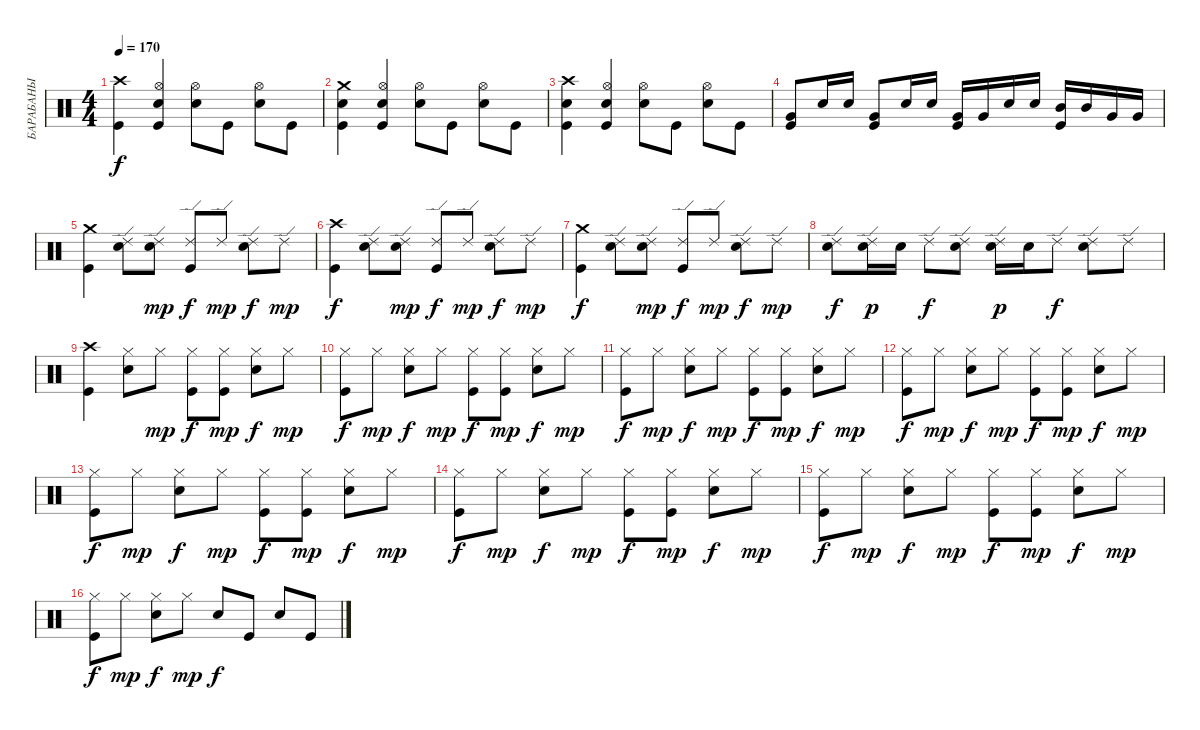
\track ("БАРАБАНЫ" "БАРАБАНЫ") {instrument percussion}
\staff {score}
\articulation defaults
\ts (4 4)
\tempo 170
\clef neutral
\ks c
("Crash high (hit)" "Kick (hit)").4{dy f} ("Hi-Hat (open)" "Electric Snare (hit)" "Kick (hit)").4 ("Hi-Hat (open)" "Electric Snare (hit)").8 "Kick (hit)".8 ("Hi-Hat (open)" "Electric Snare (hit)").8 "Kick (hit)".8 |
("Crash medium (hit)" "Electric Snare (hit)" "Kick (hit)").4 ("Hi-Hat (open)" "Electric Snare (hit)" "Kick (hit)").4 ("Hi-Hat (open)" "Electric Snare (hit)").8 "Kick (hit)".8 ("Hi-Hat (open)" "Electric Snare (hit)").8 "Kick (hit)".8 |
("Crash high (hit)" "Electric Snare (hit)" "Kick (hit)").4 ("Hi-Hat (open)" "Electric Snare (hit)" "Kick (hit)").4 ("Hi-Hat (open)" "Electric Snare (hit)").8 "Kick (hit)".8 ("Hi-Hat (open)" "Electric Snare (hit)").8 "Kick (hit)".8 |
("Very Low Tom (hit)" "Kick (hit)").8 "Electric Snare (hit)".16 "Electric Snare (hit)".16 ("Very Low Tom (hit)" "Kick (hit)").8 "Electric Snare (hit)".16 "Electric Snare (hit)".16 ("Very Low Tom (hit)" "Kick (hit)").16 "Very Low Tom (hit)".16 "Electric Snare (hit)".16 "Electric Snare (hit)".16 ("Mid Tom (hit)" "Kick (hit)").16 "Mid Tom (hit)".16 "Very Low Tom (hit)".16 "Very Low Tom (hit)".16 |
("Crash medium (hit)" "Kick (hit)").4 ("Ride (edge) 2" "Electric Snare (hit)").8 ("Ride (edge) 2" "Electric Snare (hit)").8{dy mp} ("Ride (edge) 2" "Kick (hit)").8{dy f} "Ride (edge) 2".8{dy mp} ("Ride (edge) 2" "Electric Snare (hit)").8{dy f} "Ride (edge) 2".8{dy mp} |
("Crash high (hit)" "Kick (hit)").4{dy f} ("Ride (edge) 2" "Electric Snare (hit)").8 ("Ride (edge) 2" "Electric Snare (hit)").8{dy mp} ("Ride (edge) 2" "Kick (hit)").8{dy f} "Ride (edge) 2".8{dy mp} ("Ride (edge) 2" "Electric Snare (hit)").8{dy f} "Ride (edge) 2".8{dy mp} |
("Crash medium (hit)" "Kick (hit)").4{dy f} ("Ride (edge) 2" "Electric Snare (hit)").8 ("Ride (edge) 2" "Electric Snare (hit)").8{dy mp} ("Ride (edge) 2" "Kick (hit)").8{dy f} "Ride (edge) 2".8{dy mp} ("Ride (edge) 2" "Electric Snare (hit)").8{dy f} "Ride (edge) 2".8{dy mp} |
("Ride (edge) 2" "Electric Snare (hit)").8{dy f} ("Ride (edge) 2" "Electric Snare (hit)").16{dy p} "Electric Snare (hit)".16 "Ride (edge) 2".8{dy f} ("Ride (edge) 2" "Electric Snare (hit)").8 ("Ride (edge) 2" "Electric Snare (hit)").16{dy p} "Electric Snare (hit)".16 "Ride (edge) 2".8{dy f} ("Ride (edge) 2" "Electric Snare (hit)").8 "Ride (edge) 2".8 |
("Crash high (hit)" "Kick (hit)").4 ("Hi-Hat (closed)" "Electric Snare (hit)").8 "Hi-Hat (closed)".8{dy mp} ("Hi-Hat (closed)" "Kick (hit)").8{dy f} ("Hi-Hat (closed)" "Kick (hit)").8{dy mp} ("Hi-Hat (closed)" "Electric Snare (hit)").8{dy f} "Hi-Hat (closed)".8{dy mp} |
("Hi-Hat (closed)" "Kick (hit)").8{dy f} "Hi-Hat (closed)".8{dy mp} ("Hi-Hat (closed)" "Electric Snare (hit)").8{dy f} "Hi-Hat (closed)".8{dy mp} ("Hi-Hat (closed)" "Kick (hit)").8{dy f} ("Hi-Hat (closed)" "Kick (hit)").8{dy mp} ("Hi-Hat (closed)" "Electric Snare (hit)").8{dy f} "Hi-Hat (closed)".8{dy mp} |
("Hi-Hat (closed)" "Kick (hit)").8{dy f} "Hi-Hat (closed)".8{dy mp} ("Hi-Hat (closed)" "Electric Snare (hit)").8{dy f} "Hi-Hat (closed)".8{dy mp} ("Hi-Hat (closed)" "Kick (hit)").8{dy f} ("Hi-Hat (closed)" "Kick (hit)").8{dy mp} ("Hi-Hat (closed)" "Electric Snare (hit)").8{dy f} "Hi-Hat (closed)".8{dy mp} |
("Hi-Hat (closed)" "Kick (hit)").8{dy f} "Hi-Hat (closed)".8{dy mp} ("Hi-Hat (closed)" "Electric Snare (hit)").8{dy f} "Hi-Hat (closed)".8{dy mp} ("Hi-Hat (closed)" "Kick (hit)").8{dy f} ("Hi-Hat (closed)" "Kick (hit)").8{dy mp} ("Hi-Hat (closed)" "Electric Snare (hit)").8{dy f} "Hi-Hat (closed)".8{dy mp} |
("Hi-Hat (closed)" "Kick (hit)").8{dy f} "Hi-Hat (closed)".8{dy mp} ("Hi-Hat (closed)" "Electric Snare (hit)").8{dy f} "Hi-Hat (closed)".8{dy mp} ("Hi-Hat (closed)" "Kick (hit)").8{dy f} ("Hi-Hat (closed)" "Kick (hit)").8{dy mp} ("Hi-Hat (closed)" "Electric Snare (hit)").8{dy f} "Hi-Hat (closed)".8{dy mp} |
("Hi-Hat (closed)" "Kick (hit)").8{dy f} "Hi-Hat (closed)".8{dy mp} ("Hi-Hat (closed)" "Electric Snare (hit)").8{dy f} "Hi-Hat (closed)".8{dy mp} ("Hi-Hat (closed)" "Kick (hit)").8{dy f} ("Hi-Hat (closed)" "Kick (hit)").8{dy mp} ("Hi-Hat (closed)" "Electric Snare (hit)").8{dy f} "Hi-Hat (closed)".8{dy mp} |
("Hi-Hat (closed)" "Kick (hit)").8{dy f} "Hi-Hat (closed)".8{dy mp} ("Hi-Hat (closed)" "Electric Snare (hit)").8{dy f} "Hi-Hat (closed)".8{dy mp} ("Hi-Hat (closed)" "Kick (hit)").8{dy f} ("Hi-Hat (closed)" "Kick (hit)").8{dy mp} ("Hi-Hat (closed)" "Electric Snare (hit)").8{dy f} "Hi-Hat (closed)".8{dy mp} |
("Hi-Hat (closed)" "Kick (hit)").8{dy f} "Hi-Hat (closed)".8{dy mp} ("Hi-Hat (closed)" "Electric Snare (hit)").8{dy f} "Hi-Hat (closed)".8{dy mp} "Electric Snare (hit)".8{dy f} "Kick (hit)".8 "Electric Snare (hit)".8 "Kick (hit)".8
